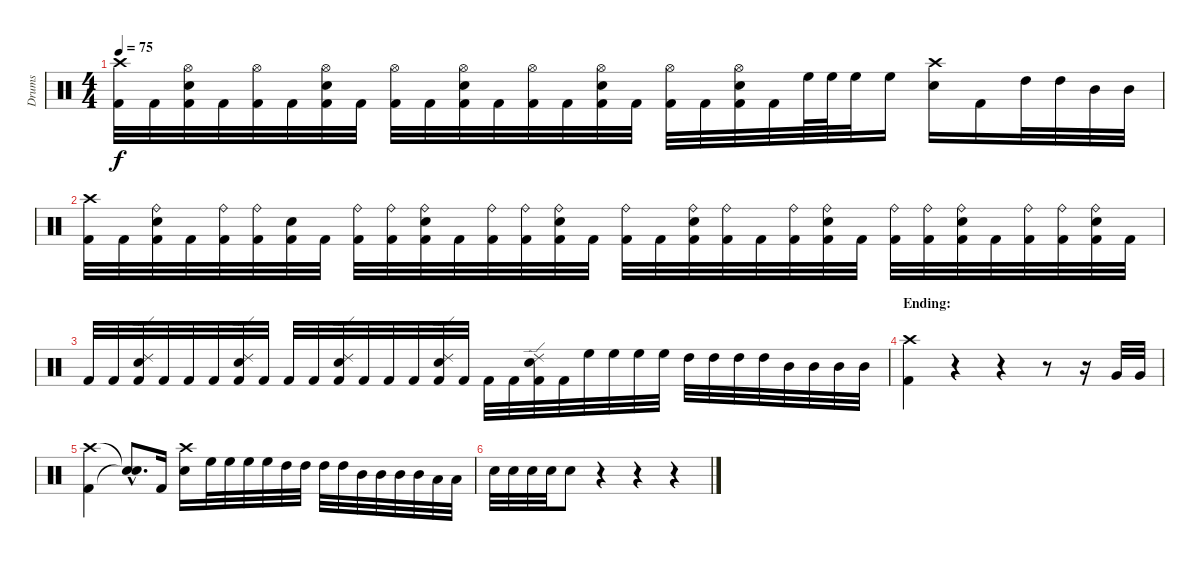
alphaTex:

\track ("Drums" "Drums") {instrument percussion}
\staff {score}
\articulation defaults
\ts (4 4)
\tempo 75
\clef neutral
\ks c
("Crash high (hit)" "Kick (hit) 2").32{dy f} "Kick (hit) 2".32 ("Hi-Hat (open)" "Snare (hit) 2" "Kick (hit) 2").32 "Kick (hit) 2".32 ("Hi-Hat (open)" "Kick (hit) 2").32 "Kick (hit) 2".32 ("Hi-Hat (open)" "Snare (hit) 2" "Kick (hit) 2").32 "Kick (hit) 2".32 ("Hi-Hat (open)" "Kick (hit) 2").32 "Kick (hit) 2".32 ("Hi-Hat (open)" "Snare (hit) 2" "Kick (hit) 2").32 "Kick (hit) 2".32 ("Hi-Hat (open)" "Kick (hit) 2").32 "Kick (hit) 2".32 ("Hi-Hat (open)" "Snare (hit) 2" "Kick (hit) 2").32 "Kick (hit) 2".32 ("Hi-Hat (open)" "Kick (hit) 2").32 "Kick (hit) 2".32 ("Hi-Hat (open)" "Snare (hit) 2" "Kick (hit) 2").32 "Kick (hit) 2".32 "High Floor Tom (hit)".64 "High Floor Tom (hit)".64 "High Floor Tom (hit)".32 "High Floor Tom (hit)".16 ("Crash high (hit)" "Snare (hit) 2").16 "Kick (hit) 2".16 "High Tom (hit)".32 "High Tom (hit)".32 "Mid Tom (hit)".32 "Mid Tom (hit)".32 |
("Crash high (hit)" "Kick (hit) 2").32 "Kick (hit) 2".32 ("Ride (bell)" "Snare (hit) 2" "Kick (hit) 2").32 "Kick (hit) 2".32 ("Ride (bell)" "Kick (hit) 2").32 ("Ride (bell)" "Kick (hit) 2").32 ("Snare (hit) 2" "Kick (hit) 2").32 "Kick (hit) 2".32 ("Ride (bell)" "Kick (hit) 2").32 ("Ride (bell)" "Kick (hit) 2").32 ("Ride (bell)" "Snare (hit) 2" "Kick (hit) 2").32 "Kick (hit) 2".32 ("Ride (bell)" "Kick (hit) 2").32 ("Ride (bell)" "Kick (hit) 2").32 ("Ride (bell)" "Snare (hit) 2" "Kick (hit) 2").32 "Kick (hit) 2".32 ("Ride (bell)" "Kick (hit) 2").32 "Kick (hit) 2".32 ("Ride (bell)" "Snare (hit) 2" "Kick (hit) 2").32 ("Ride (bell)" "Kick (hit) 2").32 "Kick (hit) 2".32 ("Ride (bell)" "Kick (hit) 2").32 ("Ride (bell)" "Snare (hit) 2" "Kick (hit) 2").32 "Kick (hit) 2".32 ("Ride (bell)" "Kick (hit) 2").32 ("Ride (bell)" "Kick (hit) 2").32 ("Ride (bell)" "Snare (hit) 2" "Kick (hit) 2").32 "Kick (hit) 2".32 ("Ride (bell)" "Kick (hit) 2").32 ("Ride (bell)" "Kick (hit) 2").32 ("Ride (bell)" "Snare (hit) 2" "Kick (hit) 2").32 "Kick (hit) 2".32 |
"Kick (hit) 2".32 "Kick (hit) 2".32 ("Ride (edge) 2" "Snare (hit) 2" "Kick (hit) 2").32 "Kick (hit) 2".32 "Kick (hit) 2".32 "Kick (hit) 2".32 ("Ride (edge) 2" "Snare (hit) 2" "Kick (hit) 2").32 "Kick (hit) 2".32 "Kick (hit) 2".32 "Kick (hit) 2".32 ("Ride (edge) 2" "Snare (hit) 2" "Kick (hit) 2").32 "Kick (hit) 2".32 "Kick (hit) 2".32 "Kick (hit) 2".32 ("Ride (edge) 2" "Snare (hit) 2" "Kick (hit) 2").32 "Kick (hit) 2".32 "Kick (hit) 2".32 "Kick (hit) 2".32 ("Ride (edge) 2" "Snare (hit) 2" "Kick (hit) 2").32 "Kick (hit) 2".32 "High Floor Tom (hit)".32 "High Floor Tom (hit)".32 "High Floor Tom (hit)".32 "High Floor Tom (hit)".32 "High Tom (hit)".32 "High Tom (hit)".32 "High Tom (hit)".32 "High Tom (hit)".32 "Mid Tom (hit)".32 "Mid Tom (hit)".32 "Mid Tom (hit)".32 "Mid Tom (hit)".32 |
\section ("" "Ending:")
("Crash high (hit)" "Kick (hit) 2").4 r.4 r.4 r.8 r.16 "Very Low Tom (hit)".32 "Very Low Tom (hit)".32 |
("Crash high (hit)" "Kick (hit) 2").4 ("Snare (hit)"{hac t} "Snare (hit)"{hac t}).8{d} "Kick (hit) 2".16 ("Crash high (hit)" "Snare (hit) 2").16 "High Floor Tom (hit)".32 "High Floor Tom (hit)".32 "High Floor Tom (hit)".32 "High Floor Tom (hit)".32 "High Tom (hit)".32 "High Tom (hit)".32 "High Tom (hit)".32 "High Tom (hit)".32 "Mid Tom (hit)".32 "Mid Tom (hit)".32 "Mid Tom (hit)".32 "Mid Tom (hit)".32 "Low Tom (hit)".32 "Low Tom (hit)".32 |
"Snare (hit) 2".32 "Snare (hit) 2".32 "Snare (hit) 2".32 "Snare (hit) 2".32 "Snare (hit) 2".8 r.4 r.4 r.4
